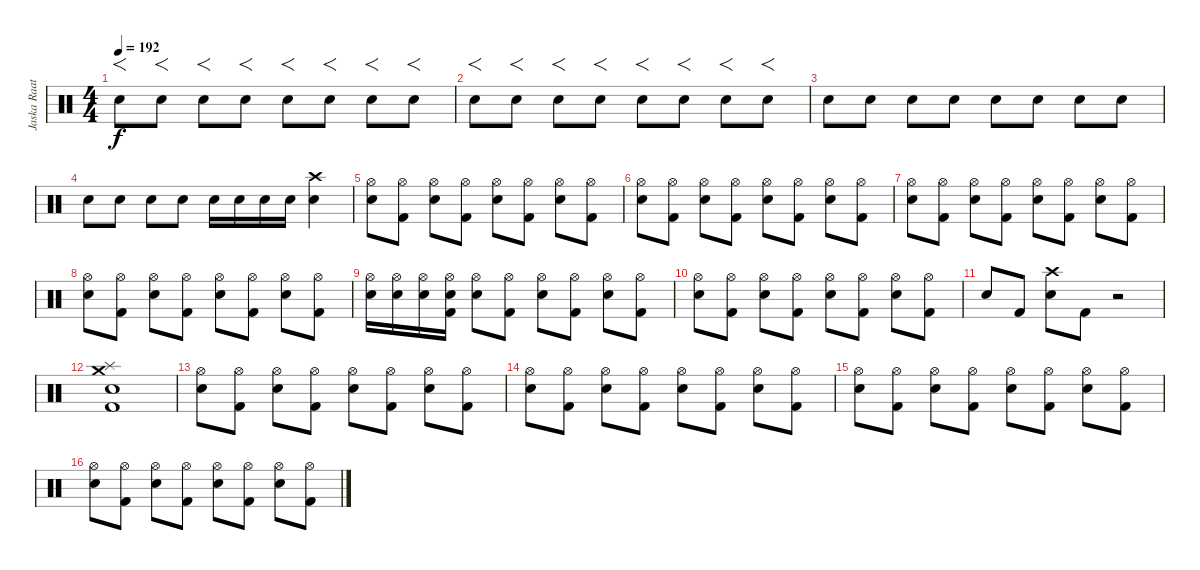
\track ("Jaska Raatikainen" "Jaska Raat") {instrument percussion}
\staff {score}
\articulation defaults
\ts (4 4)
\tempo 192
\clef neutral
\ks c "Snare (hit) 2".8{f dy f} "Snare (hit) 2".8{f} "Snare (hit) 2".8{f} "Snare (hit) 2".8{f} "Snare (hit) 2".8{f} "Snare (hit) 2".8{f} "Snare (hit) 2".8{f} "Snare (hit) 2".8{f}
|
"Snare (hit) 2".8{f} "Snare (hit) 2".8{f} "Snare (hit) 2".8{f} "Snare (hit) 2".8{f} "Snare (hit) 2".8{f} "Snare (hit) 2".8{f} "Snare (hit) 2".8{f} "Snare (hit) 2".8{f} |
"Snare (hit) 2".8 "Snare (hit) 2".8 "Snare (hit) 2".8 "Snare (hit) 2".8 "Snare (hit) 2".8 "Snare (hit) 2".8 "Snare (hit) 2".8 "Snare (hit) 2".8 |
"Snare (hit) 2".8 "Snare (hit) 2".8 "Snare (hit) 2".8 "Snare (hit) 2".8 "Snare (hit) 2".16 "Snare (hit) 2".16 "Snare (hit) 2".16 "Snare (hit) 2".16 ("Crash high (hit)" "Snare (hit) 2").4 |
("Hi-Hat (open)" "Snare (hit) 2").8 ("Hi-Hat (open)" "Kick (hit) 2").8 ("Hi-Hat (open)" "Snare (hit) 2").8 ("Hi-Hat (open)" "Kick (hit) 2").8 ("Hi-Hat (open)" "Snare (hit) 2").8 ("Hi-Hat (open)" "Kick (hit) 2").8 ("Hi-Hat (open)" "Snare (hit) 2").8 ("Hi-Hat (open)" "Kick (hit) 2").8 |
("Hi-Hat (open)" "Snare (hit) 2").8 ("Hi-Hat (open)" "Kick (hit) 2").8 ("Hi-Hat (open)" "Snare (hit) 2").8 ("Hi-Hat (open)" "Kick (hit) 2").8 ("Hi-Hat (open)" "Snare (hit) 2").8 ("Hi-Hat (open)" "Kick (hit) 2").8 ("Hi-Hat (open)" "Snare (hit) 2").8 ("Hi-Hat (open)" "Kick (hit) 2").8 |
("Hi-Hat (open)" "Snare (hit) 2").8 ("Hi-Hat (open)" "Kick (hit) 2").8 ("Hi-Hat (open)" "Snare (hit) 2").8 ("Hi-Hat (open)" "Kick (hit) 2").8 ("Hi-Hat (open)" "Snare (hit) 2").8 ("Hi-Hat (open)" "Kick (hit) 2").8 ("Hi-Hat (open)" "Snare (hit) 2").8 ("Hi-Hat (open)" "Kick (hit) 2").8 |
("Hi-Hat (open)" "Snare (hit) 2").8 ("Hi-Hat (open)" "Kick (hit) 2").8 ("Hi-Hat (open)" "Snare (hit) 2").8 ("Hi-Hat (open)" "Kick (hit) 2").8 ("Hi-Hat (open)" "Snare (hit) 2").8 ("Hi-Hat (open)" "Kick (hit) 2").8 ("Hi-Hat (open)" "Snare (hit) 2").8 ("Hi-Hat (open)" "Kick (hit) 2").8 |
("Hi-Hat (open)" "Snare (hit) 2").16 ("Hi-Hat (open)" "Snare (hit) 2").16 ("Hi-Hat (open)" "Snare (hit) 2").16 ("Hi-Hat (open)" "Snare (hit) 2" "Kick (hit) 2").16 ("Hi-Hat (open)" "Snare (hit) 2").8 ("Hi-Hat (open)" "Kick (hit) 2").8 ("Hi-Hat (open)" "Snare (hit) 2").8 ("Hi-Hat (open)" "Kick (hit) 2").8 ("Hi-Hat (open)" "Snare (hit) 2").8 ("Hi-Hat (open)" "Kick (hit) 2").8 |
("Hi-Hat (open)" "Snare (hit) 2").8 ("Hi-Hat (open)" "Kick (hit) 2").8 ("Hi-Hat (open)" "Snare (hit) 2").8 ("Hi-Hat (open)" "Kick (hit) 2").8 ("Hi-Hat (open)" "Snare (hit) 2").8 ("Hi-Hat (open)" "Kick (hit) 2").8 ("Hi-Hat (open)" "Snare (hit) 2").8 ("Hi-Hat (open)" "Kick (hit) 2").8 |
"Snare (hit) 2".8 "Kick (hit) 2".8 ("Crash high (hit)" "Snare (hit) 2").8 "Kick (hit) 2".8 r.2 |
("Crash medium (hit)" "Splash (hit)" "Snare (hit) 2" "Kick (hit) 2").1 |
("Hi-Hat (open)" "Snare (hit) 2").8 ("Hi-Hat (open)" "Kick (hit) 2").8 ("Hi-Hat (open)" "Snare (hit) 2").8 ("Hi-Hat (open)" "Kick (hit) 2").8 ("Hi-Hat (open)" "Snare (hit) 2").8 ("Hi-Hat (open)" "Kick (hit) 2").8 ("Hi-Hat (open)" "Snare (hit) 2").8 ("Hi-Hat (open)" "Kick (hit) 2").8 |
("Hi-Hat (open)" "Snare (hit) 2").8 ("Hi-Hat (open)" "Kick (hit) 2").8 ("Hi-Hat (open)" "Snare (hit) 2").8 ("Hi-Hat (open)" "Kick (hit) 2").8 ("Hi-Hat (open)" "Snare (hit) 2").8 ("Hi-Hat (open)" "Kick (hit) 2").8 ("Hi-Hat (open)" "Snare (hit) 2").8 ("Hi-Hat (open)" "Kick (hit) 2").8 |
("Hi-Hat (open)" "Snare (hit) 2").8 ("Hi-Hat (open)" "Kick (hit) 2").8 ("Hi-Hat (open)" "Snare (hit) 2").8 ("Hi-Hat (open)" "Kick (hit) 2").8 ("Hi-Hat (open)" "Snare (hit) 2").8 ("Hi-Hat (open)" "Kick (hit) 2").8 ("Hi-Hat (open)" "Snare (hit) 2").8 ("Hi-Hat (open)" "Kick (hit) 2").8 |
("Hi-Hat (open)" "Snare (hit) 2").8 ("Hi-Hat (open)" "Kick (hit) 2").8 ("Hi-Hat (open)" "Snare (hit) 2").8 ("Hi-Hat (open)" "Kick (hit) 2").8 ("Hi-Hat (open)" "Snare (hit) 2").8 ("Hi-Hat (open)" "Kick (hit) 2").8 ("Hi-Hat (open)" "Snare (hit) 2").8 ("Hi-Hat (open)" "Kick (hit) 2").8
